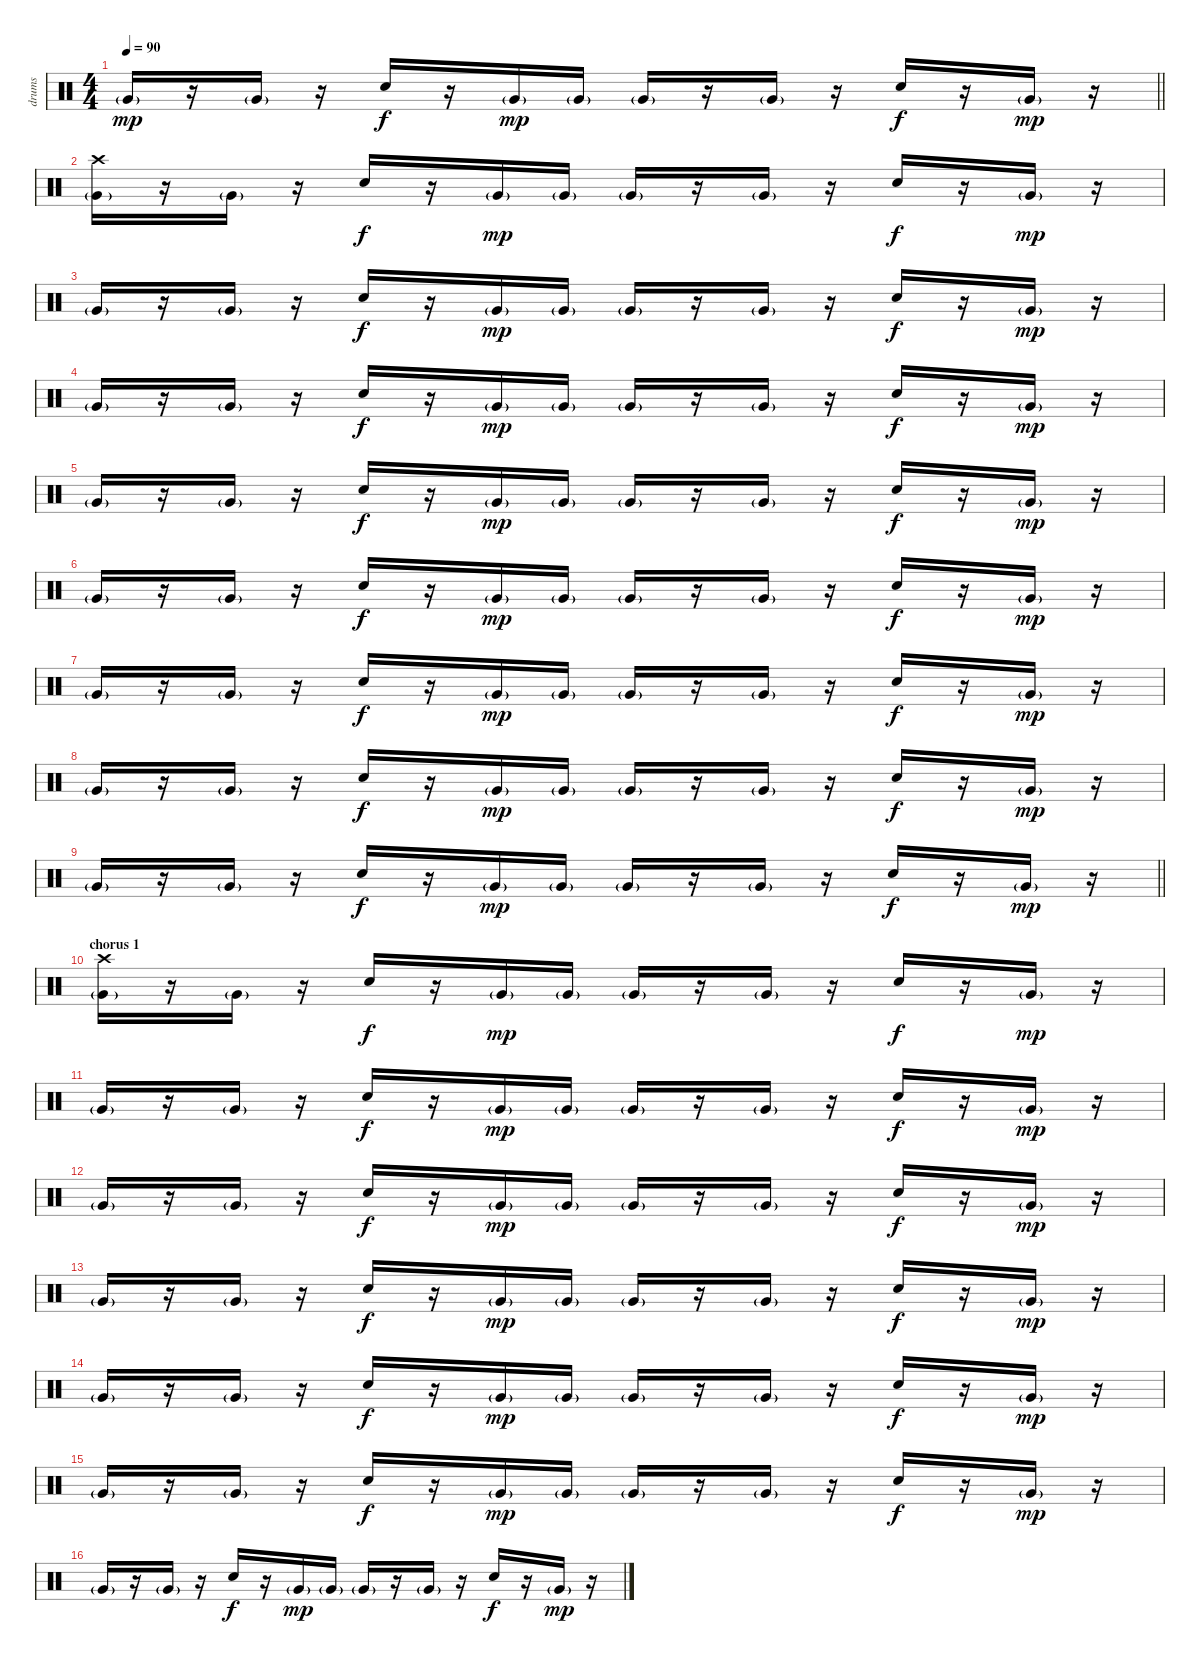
\track ("drums" "drums") {instrument percussion}
\staff {score}
\articulation defaults
\ts (4 4)
\tempo 90
\clef neutral
\barLineRight lightlight
\ks c "Very Low Tom (hit)"{g}.16{dy mp}
r.16 "Very Low Tom (hit)"{g}.16 r.16 "Electric Snare (hit)".16{dy f} r.16 "Very Low Tom (hit)"{g}.16{dy mp} "Very Low Tom (hit)"{g}.16 "Very Low Tom (hit)"{g}.16 r.16 "Very Low Tom (hit)"{g}.16 r.16 "Electric Snare (hit)".16{dy f} r.16 "Very Low Tom (hit)"{g}.16{dy mp} r.16 |
("Very Low Tom (hit)"{g} "Crash high (hit)").16 r.16 "Very Low Tom (hit)"{g}.16 r.16 "Electric Snare (hit)".16{dy f} r.16 "Very Low Tom (hit)"{g}.16{dy mp} "Very Low Tom (hit)"{g}.16 "Very Low Tom (hit)"{g}.16 r.16 "Very Low Tom (hit)"{g}.16 r.16 "Electric Snare (hit)".16{dy f} r.16 "Very Low Tom (hit)"{g}.16{dy mp} r.16 |
"Very Low Tom (hit)"{g}.16 r.16 "Very Low Tom (hit)"{g}.16 r.16 "Electric Snare (hit)".16{dy f} r.16 "Very Low Tom (hit)"{g}.16{dy mp} "Very Low Tom (hit)"{g}.16 "Very Low Tom (hit)"{g}.16 r.16 "Very Low Tom (hit)"{g}.16 r.16 "Electric Snare (hit)".16{dy f} r.16 "Very Low Tom (hit)"{g}.16{dy mp} r.16 |
"Very Low Tom (hit)"{g}.16 r.16 "Very Low Tom (hit)"{g}.16 r.16 "Electric Snare (hit)".16{dy f} r.16 "Very Low Tom (hit)"{g}.16{dy mp} "Very Low Tom (hit)"{g}.16 "Very Low Tom (hit)"{g}.16 r.16 "Very Low Tom (hit)"{g}.16 r.16 "Electric Snare (hit)".16{dy f} r.16 "Very Low Tom (hit)"{g}.16{dy mp} r.16 |
"Very Low Tom (hit)"{g}.16 r.16 "Very Low Tom (hit)"{g}.16 r.16 "Electric Snare (hit)".16{dy f} r.16 "Very Low Tom (hit)"{g}.16{dy mp} "Very Low Tom (hit)"{g}.16 "Very Low Tom (hit)"{g}.16 r.16 "Very Low Tom (hit)"{g}.16 r.16 "Electric Snare (hit)".16{dy f} r.16 "Very Low Tom (hit)"{g}.16{dy mp} r.16 |
"Very Low Tom (hit)"{g}.16 r.16 "Very Low Tom (hit)"{g}.16 r.16 "Electric Snare (hit)".16{dy f} r.16 "Very Low Tom (hit)"{g}.16{dy mp} "Very Low Tom (hit)"{g}.16 "Very Low Tom (hit)"{g}.16 r.16 "Very Low Tom (hit)"{g}.16 r.16 "Electric Snare (hit)".16{dy f} r.16 "Very Low Tom (hit)"{g}.16{dy mp} r.16 |
"Very Low Tom (hit)"{g}.16 r.16 "Very Low Tom (hit)"{g}.16 r.16 "Electric Snare (hit)".16{dy f} r.16 "Very Low Tom (hit)"{g}.16{dy mp} "Very Low Tom (hit)"{g}.16 "Very Low Tom (hit)"{g}.16 r.16 "Very Low Tom (hit)"{g}.16 r.16 "Electric Snare (hit)".16{dy f} r.16 "Very Low Tom (hit)"{g}.16{dy mp} r.16 |
"Very Low Tom (hit)"{g}.16 r.16 "Very Low Tom (hit)"{g}.16 r.16 "Electric Snare (hit)".16{dy f} r.16 "Very Low Tom (hit)"{g}.16{dy mp} "Very Low Tom (hit)"{g}.16 "Very Low Tom (hit)"{g}.16 r.16 "Very Low Tom (hit)"{g}.16 r.16 "Electric Snare (hit)".16{dy f} r.16 "Very Low Tom (hit)"{g}.16{dy mp} r.16 |
\barLineRight lightlight "Very Low Tom (hit)"{g}.16
r.16 "Very Low Tom (hit)"{g}.16 r.16 "Electric Snare (hit)".16{dy f} r.16 "Very Low Tom (hit)"{g}.16{dy mp} "Very Low Tom (hit)"{g}.16 "Very Low Tom (hit)"{g}.16 r.16 "Very Low Tom (hit)"{g}.16 r.16 "Electric Snare (hit)".16{dy f} r.16 "Very Low Tom (hit)"{g}.16{dy mp} r.16 |
\section ("" "chorus 1")
("Very Low Tom (hit)"{g} "Crash high (hit)").16 r.16 "Very Low Tom (hit)"{g}.16 r.16 "Electric Snare (hit)".16{dy f} r.16 "Very Low Tom (hit)"{g}.16{dy mp} "Very Low Tom (hit)"{g}.16 "Very Low Tom (hit)"{g}.16 r.16 "Very Low Tom (hit)"{g}.16 r.16 "Electric Snare (hit)".16{dy f} r.16 "Very Low Tom (hit)"{g}.16{dy mp} r.16 |
"Very Low Tom (hit)"{g}.16 r.16 "Very Low Tom (hit)"{g}.16 r.16 "Electric Snare (hit)".16{dy f} r.16 "Very Low Tom (hit)"{g}.16{dy mp} "Very Low Tom (hit)"{g}.16 "Very Low Tom (hit)"{g}.16 r.16 "Very Low Tom (hit)"{g}.16 r.16 "Electric Snare (hit)".16{dy f} r.16 "Very Low Tom (hit)"{g}.16{dy mp} r.16 |
"Very Low Tom (hit)"{g}.16 r.16 "Very Low Tom (hit)"{g}.16 r.16 "Electric Snare (hit)".16{dy f} r.16 "Very Low Tom (hit)"{g}.16{dy mp} "Very Low Tom (hit)"{g}.16 "Very Low Tom (hit)"{g}.16 r.16 "Very Low Tom (hit)"{g}.16 r.16 "Electric Snare (hit)".16{dy f} r.16 "Very Low Tom (hit)"{g}.16{dy mp} r.16 |
"Very Low Tom (hit)"{g}.16 r.16 "Very Low Tom (hit)"{g}.16 r.16 "Electric Snare (hit)".16{dy f} r.16 "Very Low Tom (hit)"{g}.16{dy mp} "Very Low Tom (hit)"{g}.16 "Very Low Tom (hit)"{g}.16 r.16 "Very Low Tom (hit)"{g}.16 r.16 "Electric Snare (hit)".16{dy f} r.16 "Very Low Tom (hit)"{g}.16{dy mp} r.16 |
"Very Low Tom (hit)"{g}.16 r.16 "Very Low Tom (hit)"{g}.16 r.16 "Electric Snare (hit)".16{dy f} r.16 "Very Low Tom (hit)"{g}.16{dy mp} "Very Low Tom (hit)"{g}.16 "Very Low Tom (hit)"{g}.16 r.16 "Very Low Tom (hit)"{g}.16 r.16 "Electric Snare (hit)".16{dy f} r.16 "Very Low Tom (hit)"{g}.16{dy mp} r.16 |
"Very Low Tom (hit)"{g}.16 r.16 "Very Low Tom (hit)"{g}.16 r.16 "Electric Snare (hit)".16{dy f} r.16 "Very Low Tom (hit)"{g}.16{dy mp} "Very Low Tom (hit)"{g}.16 "Very Low Tom (hit)"{g}.16 r.16 "Very Low Tom (hit)"{g}.16 r.16 "Electric Snare (hit)".16{dy f} r.16 "Very Low Tom (hit)"{g}.16{dy mp} r.16 |
"Very Low Tom (hit)"{g}.16 r.16 "Very Low Tom (hit)"{g}.16 r.16 "Electric Snare (hit)".16{dy f} r.16 "Very Low Tom (hit)"{g}.16{dy mp} "Very Low Tom (hit)"{g}.16 "Very Low Tom (hit)"{g}.16 r.16 "Very Low Tom (hit)"{g}.16 r.16 "Electric Snare (hit)".16{dy f} r.16 "Very Low Tom (hit)"{g}.16{dy mp} r.16
